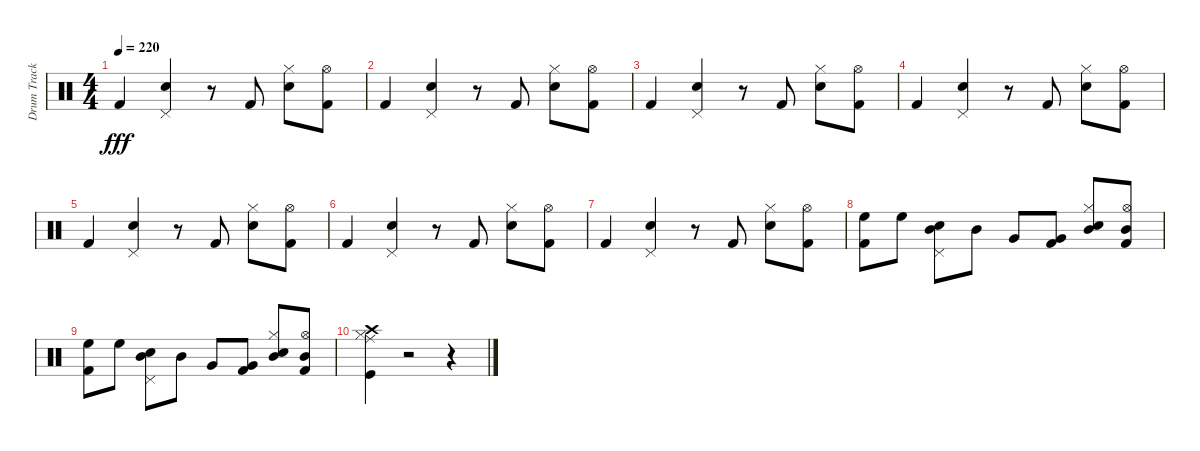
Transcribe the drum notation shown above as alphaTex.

\track ("Drum Track" "Drum Track") {instrument percussion}
\staff {score}
\articulation defaults
\ts (4 4)
\tempo 220
\clef neutral
\ks c "Kick (hit) 2".4{dy fff}
("Snare (hit) 2" "Pedal Hi-Hat (hit)").4 r.8 "Kick (hit) 2".8 ("Snare (hit) 2" "Hi-Hat (closed)").8 ("Kick (hit) 2" "Hi-Hat (open)").8 |
"Kick (hit) 2".4 ("Snare (hit) 2" "Pedal Hi-Hat (hit)").4 r.8 "Kick (hit) 2".8 ("Snare (hit) 2" "Hi-Hat (closed)").8 ("Kick (hit) 2" "Hi-Hat (open)").8 |
"Kick (hit) 2".4 ("Snare (hit) 2" "Pedal Hi-Hat (hit)").4 r.8 "Kick (hit) 2".8 ("Snare (hit) 2" "Hi-Hat (closed)").8 ("Kick (hit) 2" "Hi-Hat (open)").8 |
"Kick (hit) 2".4 ("Snare (hit) 2" "Pedal Hi-Hat (hit)").4 r.8 "Kick (hit) 2".8 ("Snare (hit) 2" "Hi-Hat (closed)").8 ("Kick (hit) 2" "Hi-Hat (open)").8 |
"Kick (hit) 2".4 ("Snare (hit) 2" "Pedal Hi-Hat (hit)").4 r.8 "Kick (hit) 2".8 ("Snare (hit) 2" "Hi-Hat (closed)").8 ("Kick (hit) 2" "Hi-Hat (open)").8 |
"Kick (hit) 2".4 ("Snare (hit) 2" "Pedal Hi-Hat (hit)").4 r.8 "Kick (hit) 2".8 ("Snare (hit) 2" "Hi-Hat (closed)").8 ("Kick (hit) 2" "Hi-Hat (open)").8 |
"Kick (hit) 2".4 ("Snare (hit) 2" "Pedal Hi-Hat (hit)").4 r.8 "Kick (hit) 2".8 ("Snare (hit) 2" "Hi-Hat (closed)").8 ("Kick (hit) 2" "Hi-Hat (open)").8 |
("Kick (hit) 2" "High Floor Tom (hit)").8 "High Floor Tom (hit)".8 ("Snare (hit) 2" "Pedal Hi-Hat (hit)" "Mid Tom (hit)").8 "Mid Tom (hit)".8 "Very Low Tom (hit)".8 ("Kick (hit) 2" "Very Low Tom (hit)").8 ("Snare (hit) 2" "Hi-Hat (closed)" "Mid Tom (hit)").8 ("Kick (hit) 2" "Hi-Hat (open)" "Mid Tom (hit)").8 |
("Kick (hit) 2" "High Floor Tom (hit)").8 "High Floor Tom (hit)".8 ("Snare (hit) 2" "Pedal Hi-Hat (hit)" "Mid Tom (hit)").8 "Mid Tom (hit)".8 "Very Low Tom (hit)".8 ("Kick (hit) 2" "Very Low Tom (hit)").8 ("Snare (hit) 2" "Hi-Hat (closed)" "Mid Tom (hit)").8 ("Kick (hit) 2" "Hi-Hat (open)" "Mid Tom (hit)").8 |
("Kick (hit)" "Crash high (hit)" "Hi-Hat (closed)" "Ride (middle)").4 r.2 r.4
